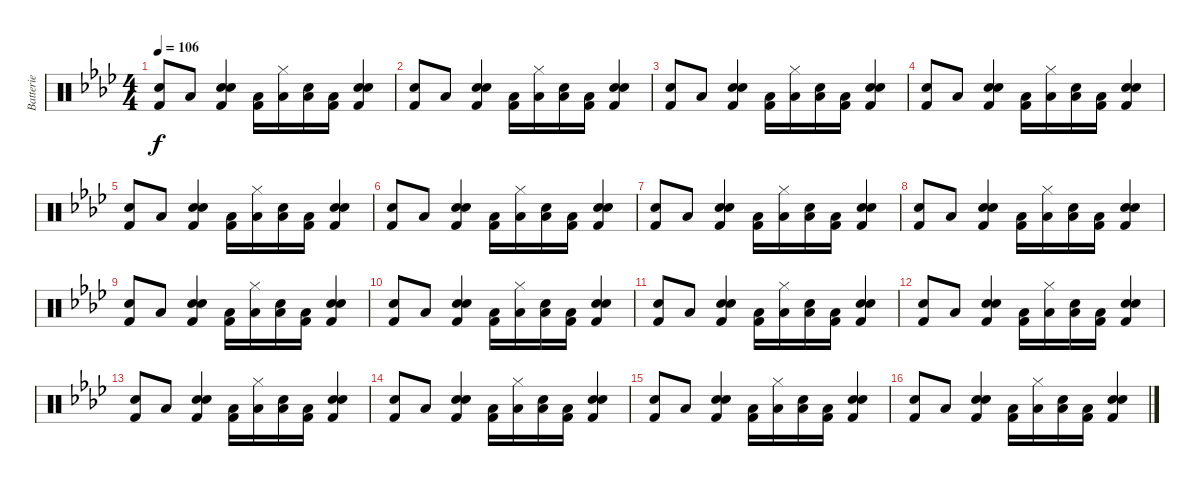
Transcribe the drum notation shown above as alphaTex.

\track ("Batterie" "Batterie") {instrument percussion}
\staff {score}
\articulation defaults
\ts (4 4)
\tempo 106
\clef neutral
\ks ab
("Kick (hit) 2" "Electric Snare (hit)").8{dy f} "Low Floor Tom (hit)".8 ("Snare (hit) 2" "Kick (hit) 2" "Electric Snare (hit)").4 ("Kick (hit) 2" "Low Floor Tom (hit)").16 ("Low Floor Tom (hit)" "Hi-Hat (closed)").16 ("Low Floor Tom (hit)" "Electric Snare (hit)").16 ("Kick (hit) 2" "Low Floor Tom (hit)").16 ("Snare (hit) 2" "Kick (hit) 2" "Electric Snare (hit)").4 |
("Kick (hit) 2" "Electric Snare (hit)").8 "Low Floor Tom (hit)".8 ("Snare (hit) 2" "Kick (hit) 2" "Electric Snare (hit)").4 ("Kick (hit) 2" "Low Floor Tom (hit)").16 ("Low Floor Tom (hit)" "Hi-Hat (closed)").16 ("Low Floor Tom (hit)" "Electric Snare (hit)").16 ("Kick (hit) 2" "Low Floor Tom (hit)").16 ("Snare (hit) 2" "Kick (hit) 2" "Electric Snare (hit)").4 |
("Kick (hit) 2" "Electric Snare (hit)").8 "Low Floor Tom (hit)".8 ("Snare (hit) 2" "Kick (hit) 2" "Electric Snare (hit)").4 ("Kick (hit) 2" "Low Floor Tom (hit)").16 ("Low Floor Tom (hit)" "Hi-Hat (closed)").16 ("Low Floor Tom (hit)" "Electric Snare (hit)").16 ("Kick (hit) 2" "Low Floor Tom (hit)").16 ("Snare (hit) 2" "Kick (hit) 2" "Electric Snare (hit)").4 |
("Kick (hit) 2" "Electric Snare (hit)").8 "Low Floor Tom (hit)".8 ("Snare (hit) 2" "Kick (hit) 2" "Electric Snare (hit)").4 ("Kick (hit) 2" "Low Floor Tom (hit)").16 ("Low Floor Tom (hit)" "Hi-Hat (closed)").16 ("Low Floor Tom (hit)" "Electric Snare (hit)").16 ("Kick (hit) 2" "Low Floor Tom (hit)").16 ("Snare (hit) 2" "Kick (hit) 2" "Electric Snare (hit)").4 |
("Kick (hit) 2" "Electric Snare (hit)").8 "Low Floor Tom (hit)".8 ("Snare (hit) 2" "Kick (hit) 2" "Electric Snare (hit)").4 ("Kick (hit) 2" "Low Floor Tom (hit)").16 ("Low Floor Tom (hit)" "Hi-Hat (closed)").16 ("Low Floor Tom (hit)" "Electric Snare (hit)").16 ("Kick (hit) 2" "Low Floor Tom (hit)").16 ("Snare (hit) 2" "Kick (hit) 2" "Electric Snare (hit)").4 |
("Kick (hit) 2" "Electric Snare (hit)").8 "Low Floor Tom (hit)".8 ("Snare (hit) 2" "Kick (hit) 2" "Electric Snare (hit)").4 ("Kick (hit) 2" "Low Floor Tom (hit)").16 ("Low Floor Tom (hit)" "Hi-Hat (closed)").16 ("Low Floor Tom (hit)" "Electric Snare (hit)").16 ("Kick (hit) 2" "Low Floor Tom (hit)").16 ("Snare (hit) 2" "Kick (hit) 2" "Electric Snare (hit)").4 |
("Kick (hit) 2" "Electric Snare (hit)").8 "Low Floor Tom (hit)".8 ("Snare (hit) 2" "Kick (hit) 2" "Electric Snare (hit)").4 ("Kick (hit) 2" "Low Floor Tom (hit)").16 ("Low Floor Tom (hit)" "Hi-Hat (closed)").16 ("Low Floor Tom (hit)" "Electric Snare (hit)").16 ("Kick (hit) 2" "Low Floor Tom (hit)").16 ("Snare (hit) 2" "Kick (hit) 2" "Electric Snare (hit)").4 |
("Kick (hit) 2" "Electric Snare (hit)").8 "Low Floor Tom (hit)".8 ("Snare (hit) 2" "Kick (hit) 2" "Electric Snare (hit)").4 ("Kick (hit) 2" "Low Floor Tom (hit)").16 ("Low Floor Tom (hit)" "Hi-Hat (closed)").16 ("Low Floor Tom (hit)" "Electric Snare (hit)").16 ("Kick (hit) 2" "Low Floor Tom (hit)").16 ("Snare (hit) 2" "Kick (hit) 2" "Electric Snare (hit)").4 |
("Kick (hit) 2" "Electric Snare (hit)").8 "Low Floor Tom (hit)".8 ("Snare (hit) 2" "Kick (hit) 2" "Electric Snare (hit)").4 ("Kick (hit) 2" "Low Floor Tom (hit)").16 ("Low Floor Tom (hit)" "Hi-Hat (closed)").16 ("Low Floor Tom (hit)" "Electric Snare (hit)").16 ("Kick (hit) 2" "Low Floor Tom (hit)").16 ("Snare (hit) 2" "Kick (hit) 2" "Electric Snare (hit)").4 |
("Kick (hit) 2" "Electric Snare (hit)").8 "Low Floor Tom (hit)".8 ("Snare (hit) 2" "Kick (hit) 2" "Electric Snare (hit)").4 ("Kick (hit) 2" "Low Floor Tom (hit)").16 ("Low Floor Tom (hit)" "Hi-Hat (closed)").16 ("Low Floor Tom (hit)" "Electric Snare (hit)").16 ("Kick (hit) 2" "Low Floor Tom (hit)").16 ("Snare (hit) 2" "Kick (hit) 2" "Electric Snare (hit)").4 |
("Kick (hit) 2" "Electric Snare (hit)").8 "Low Floor Tom (hit)".8 ("Snare (hit) 2" "Kick (hit) 2" "Electric Snare (hit)").4 ("Kick (hit) 2" "Low Floor Tom (hit)").16 ("Low Floor Tom (hit)" "Hi-Hat (closed)").16 ("Low Floor Tom (hit)" "Electric Snare (hit)").16 ("Kick (hit) 2" "Low Floor Tom (hit)").16 ("Snare (hit) 2" "Kick (hit) 2" "Electric Snare (hit)").4 |
("Kick (hit) 2" "Electric Snare (hit)").8 "Low Floor Tom (hit)".8 ("Snare (hit) 2" "Kick (hit) 2" "Electric Snare (hit)").4 ("Kick (hit) 2" "Low Floor Tom (hit)").16 ("Low Floor Tom (hit)" "Hi-Hat (closed)").16 ("Low Floor Tom (hit)" "Electric Snare (hit)").16 ("Kick (hit) 2" "Low Floor Tom (hit)").16 ("Snare (hit) 2" "Kick (hit) 2" "Electric Snare (hit)").4 |
("Kick (hit) 2" "Electric Snare (hit)").8 "Low Floor Tom (hit)".8 ("Snare (hit) 2" "Kick (hit) 2" "Electric Snare (hit)").4 ("Kick (hit) 2" "Low Floor Tom (hit)").16 ("Low Floor Tom (hit)" "Hi-Hat (closed)").16 ("Low Floor Tom (hit)" "Electric Snare (hit)").16 ("Kick (hit) 2" "Low Floor Tom (hit)").16 ("Snare (hit) 2" "Kick (hit) 2" "Electric Snare (hit)").4 |
("Kick (hit) 2" "Electric Snare (hit)").8 "Low Floor Tom (hit)".8 ("Snare (hit) 2" "Kick (hit) 2" "Electric Snare (hit)").4 ("Kick (hit) 2" "Low Floor Tom (hit)").16 ("Low Floor Tom (hit)" "Hi-Hat (closed)").16 ("Low Floor Tom (hit)" "Electric Snare (hit)").16 ("Kick (hit) 2" "Low Floor Tom (hit)").16 ("Snare (hit) 2" "Kick (hit) 2" "Electric Snare (hit)").4 |
("Kick (hit) 2" "Electric Snare (hit)").8 "Low Floor Tom (hit)".8 ("Snare (hit) 2" "Kick (hit) 2" "Electric Snare (hit)").4 ("Kick (hit) 2" "Low Floor Tom (hit)").16 ("Low Floor Tom (hit)" "Hi-Hat (closed)").16 ("Low Floor Tom (hit)" "Electric Snare (hit)").16 ("Kick (hit) 2" "Low Floor Tom (hit)").16 ("Snare (hit) 2" "Kick (hit) 2" "Electric Snare (hit)").4 |
("Kick (hit) 2" "Electric Snare (hit)").8 "Low Floor Tom (hit)".8 ("Snare (hit) 2" "Kick (hit) 2" "Electric Snare (hit)").4 ("Kick (hit) 2" "Low Floor Tom (hit)").16 ("Low Floor Tom (hit)" "Hi-Hat (closed)").16 ("Low Floor Tom (hit)" "Electric Snare (hit)").16 ("Kick (hit) 2" "Low Floor Tom (hit)").16 ("Snare (hit) 2" "Kick (hit) 2" "Electric Snare (hit)").4
